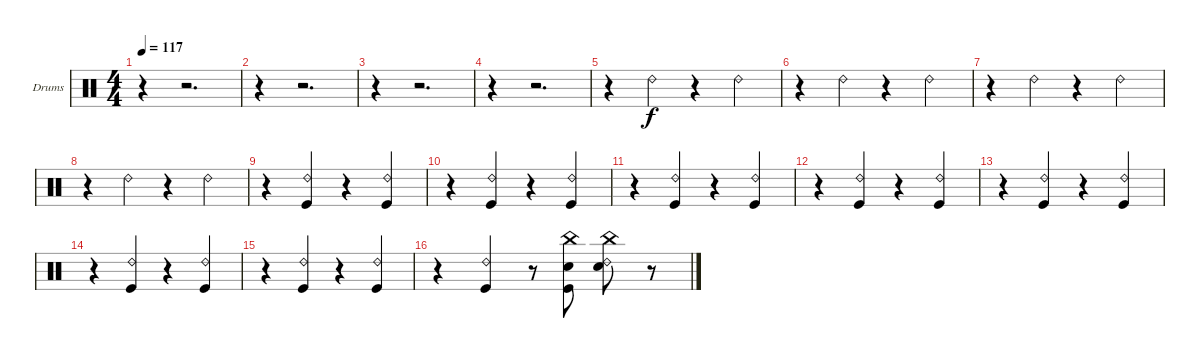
\bracketExtendMode groupsimilarinstruments
\firstSystemTrackNameOrientation horizontal
\otherSystemsTrackNameOrientation horizontal
\track ("Drumkit" "Drums") {instrument percussion}
\staff {score}
\articulation defaults
\ts (4 4)
\beaming (8 2 2 2 2)
\tempo 117
\clef neutral
\ks c
r.4{dy f} r.2{d} |
r.4 r.2{d} |
r.4 r.2{d} |
r.4 r.2{d} |
r.4 "Ride (bell) 2".4 r.4 "Ride (bell) 2".4 |
r.4 "Ride (bell) 2".4 r.4 "Ride (bell) 2".4 |
r.4 "Ride (bell) 2".4 r.4 "Ride (bell) 2".4 |
r.4 "Ride (bell) 2".4 r.4 "Ride (bell) 2".4 |
r.4 ("Ride (bell) 2" "Kick (hit)").4 r.4 ("Ride (bell) 2" "Kick (hit)").4 |
r.4 ("Ride (bell) 2" "Kick (hit)").4 r.4 ("Ride (bell) 2" "Kick (hit)").4 |
r.4 ("Ride (bell) 2" "Kick (hit)").4 r.4 ("Ride (bell) 2" "Kick (hit)").4 |
r.4 ("Ride (bell) 2" "Kick (hit)").4 r.4 ("Ride (bell) 2" "Kick (hit)").4 |
r.4 ("Ride (bell) 2" "Kick (hit)").4 r.4 ("Ride (bell) 2" "Kick (hit)").4 |
r.4 ("Ride (bell) 2" "Kick (hit)").4 r.4 ("Ride (bell) 2" "Kick (hit)").4 |
r.4 ("Ride (bell) 2" "Kick (hit)").4 r.4 ("Ride (bell) 2" "Kick (hit)").4 |
r.4 ("Ride (bell) 2" "Kick (hit)").4 r.8 ("Snare (hit) 2" "Kick (hit)" "China (hit)").8 ("Snare (hit) 2" "Ride (bell) 2" "China (hit)").8 r.8
